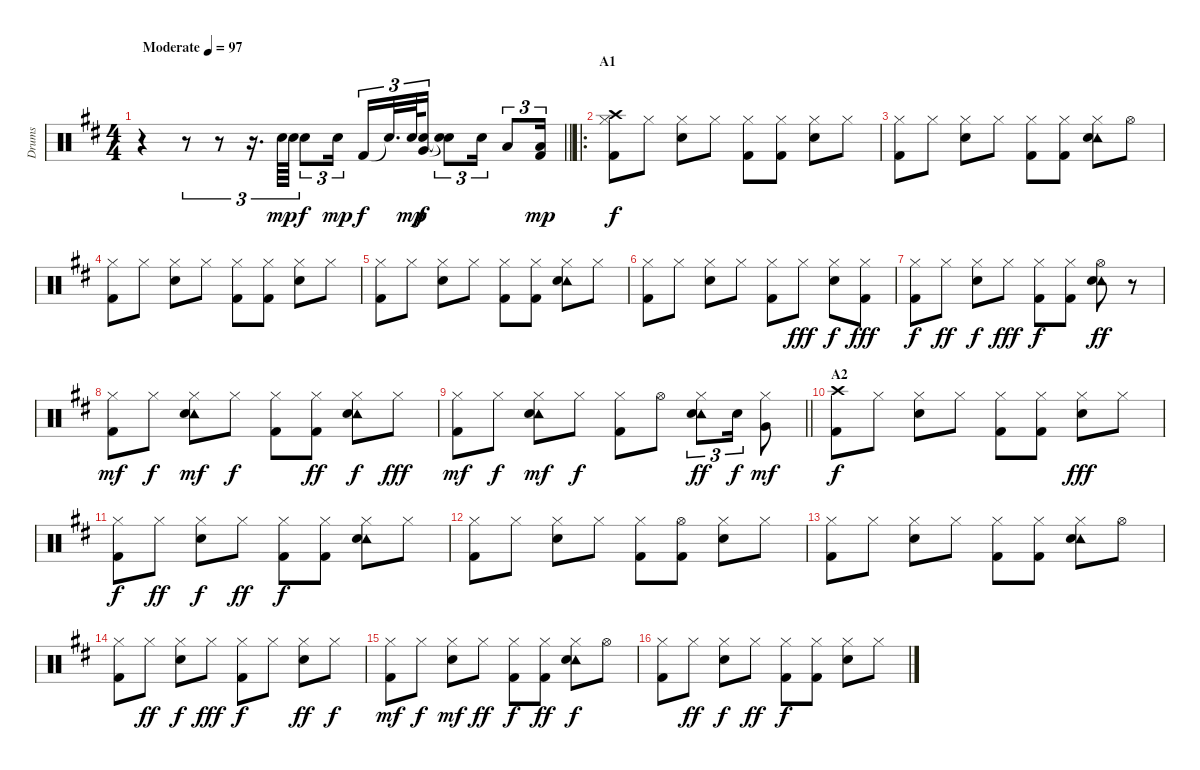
\track ("Drums" "Drums") {instrument percussion}
\staff {score}
\articulation defaults
\ts (4 4)
\tempo (97 "Moderate")
\clef neutral
\barLineRight lightlight
\ks d
r.4{dy mp} r.8{tu (3 2)} r.8{tu (3 2)} r.16{d tu (3 2)} "Electric Snare (hit)".64{tu (3 2)} "Electric Snare (hit)".64{tu (3 2)} "Electric Snare (hit)".8{tu (3 2) dy f} "Electric Snare (hit)".16{tu (3 2) dy mp} "Kick (hit) 2".16{tu (3 2) dy f} "Snare (hit)"{t}.32{d tu (3 2)} "Electric Snare (hit)".64{tu (3 2) dy mp} ("Electric Snare (hit)" "Very Low Tom (hit)").16{tu (3 2) dy f} ("Snare (hit)"{t} "Snare (hit)"{t}).8{tu (3 2)} "Electric Snare (hit)".16{tu (3 2)} "Low Tom (hit)".8{tu (3 2)} ("Low Tom (hit)" "Kick (hit) 2").16{tu (3 2) dy mp} |
\ro
\section ("" "A1")
("Hi-Hat (closed)" "Crash high (hit)" "Kick (hit) 2").8{dy f} "Hi-Hat (closed)".8 ("Hi-Hat (closed)" "Electric Snare (hit)").8 "Hi-Hat (closed)".8 ("Hi-Hat (closed)" "Kick (hit) 2").8 ("Hi-Hat (closed)" "Kick (hit) 2").8 ("Hi-Hat (closed)" "Electric Snare (hit)").8 "Hi-Hat (closed)".8 |
("Hi-Hat (closed)" "Kick (hit) 2").8 "Hi-Hat (closed)".8 ("Hi-Hat (closed)" "Electric Snare (hit)").8 "Hi-Hat (closed)".8 ("Hi-Hat (closed)" "Kick (hit) 2").8 ("Hi-Hat (closed)" "Kick (hit) 2").8 ("Hi-Hat (closed)" "Tambourine (hit)" "Electric Snare (hit)").8 "Hi-Hat (open)".8 |
("Hi-Hat (closed)" "Kick (hit) 2").8 "Hi-Hat (closed)".8 ("Hi-Hat (closed)" "Electric Snare (hit)").8 "Hi-Hat (closed)".8 ("Hi-Hat (closed)" "Kick (hit) 2").8 ("Hi-Hat (closed)" "Kick (hit) 2").8 ("Hi-Hat (closed)" "Electric Snare (hit)").8 "Hi-Hat (closed)".8 |
("Hi-Hat (closed)" "Kick (hit) 2").8 "Hi-Hat (closed)".8 ("Hi-Hat (closed)" "Electric Snare (hit)").8 "Hi-Hat (closed)".8 ("Hi-Hat (closed)" "Kick (hit) 2").8 ("Hi-Hat (closed)" "Kick (hit) 2").8 ("Hi-Hat (closed)" "Tambourine (hit)" "Electric Snare (hit)").8 "Hi-Hat (closed)".8 |
("Hi-Hat (closed)" "Kick (hit) 2").8 "Hi-Hat (closed)".8 ("Hi-Hat (closed)" "Electric Snare (hit)").8 "Hi-Hat (closed)".8 ("Hi-Hat (closed)" "Kick (hit) 2").8 "Hi-Hat (closed)".8{dy fff} ("Hi-Hat (closed)" "Electric Snare (hit)").8{dy f} ("Hi-Hat (closed)" "Kick (hit) 2").8{dy fff} |
("Hi-Hat (closed)" "Kick (hit) 2").8{dy f} "Hi-Hat (closed)".8{dy ff} ("Hi-Hat (closed)" "Electric Snare (hit)").8{dy f} "Hi-Hat (closed)".8{dy fff} ("Hi-Hat (closed)" "Kick (hit) 2").8{dy f} ("Hi-Hat (closed)" "Kick (hit) 2").8 ("Hi-Hat (open)" "Tambourine (hit)" "Electric Snare (hit)").8{dy ff} r.8 |
("Hi-Hat (closed)" "Kick (hit) 2").8{dy mf} "Hi-Hat (closed)".8{dy f} ("Hi-Hat (closed)" "Tambourine (hit)" "Electric Snare (hit)").8{dy mf} "Hi-Hat (closed)".8{dy f} ("Hi-Hat (closed)" "Kick (hit) 2").8 ("Hi-Hat (closed)" "Kick (hit) 2").8{dy ff} ("Hi-Hat (closed)" "Tambourine (hit)" "Electric Snare (hit)").8{dy f} "Hi-Hat (closed)".8{dy fff} |
\barLineRight lightlight
("Hi-Hat (closed)" "Kick (hit) 2").8{dy mf} "Hi-Hat (closed)".8{dy f} ("Hi-Hat (closed)" "Tambourine (hit)" "Electric Snare (hit)").8{dy mf} "Hi-Hat (closed)".8{dy f} ("Hi-Hat (closed)" "Kick (hit) 2").8 "Hi-Hat (open)".8 ("Hi-Hat (closed)" "Tambourine (hit)" "Electric Snare (hit)").8{tu (3 2) dy ff} "Electric Snare (hit)".16{tu (3 2) dy f} ("Hi-Hat (closed)" "Very Low Tom (hit)").8{dy mf} |
\section ("" "A2")
("Crash high (hit)" "Kick (hit) 2").8{dy f} "Hi-Hat (closed)".8 ("Hi-Hat (closed)" "Electric Snare (hit)").8 "Hi-Hat (closed)".8 ("Hi-Hat (closed)" "Kick (hit) 2").8 ("Hi-Hat (closed)" "Kick (hit) 2").8 ("Hi-Hat (closed)" "Electric Snare (hit)").8{dy fff} "Hi-Hat (closed)".8 |
("Hi-Hat (closed)" "Kick (hit) 2").8{dy f} "Hi-Hat (closed)".8{dy ff} ("Hi-Hat (closed)" "Electric Snare (hit)").8{dy f} "Hi-Hat (closed)".8{dy ff} ("Hi-Hat (closed)" "Kick (hit) 2").8{dy f} ("Hi-Hat (closed)" "Kick (hit) 2").8 ("Hi-Hat (closed)" "Tambourine (hit)" "Electric Snare (hit)").8 "Hi-Hat (closed)".8 |
("Hi-Hat (closed)" "Kick (hit) 2").8 "Hi-Hat (closed)".8 ("Hi-Hat (closed)" "Electric Snare (hit)").8 "Hi-Hat (closed)".8 ("Hi-Hat (closed)" "Kick (hit) 2").8 ("Hi-Hat (open)" "Kick (hit) 2").8 ("Hi-Hat (closed)" "Electric Snare (hit)").8 "Hi-Hat (closed)".8 |
("Hi-Hat (closed)" "Kick (hit) 2").8 "Hi-Hat (closed)".8 ("Hi-Hat (closed)" "Electric Snare (hit)").8 "Hi-Hat (closed)".8 ("Hi-Hat (closed)" "Kick (hit) 2").8 ("Hi-Hat (closed)" "Kick (hit) 2").8 ("Hi-Hat (closed)" "Tambourine (hit)" "Electric Snare (hit)").8 "Hi-Hat (open)".8 |
("Hi-Hat (closed)" "Kick (hit) 2").8 "Hi-Hat (closed)".8{dy ff} ("Hi-Hat (closed)" "Electric Snare (hit)").8{dy f} "Hi-Hat (closed)".8{dy fff} ("Hi-Hat (closed)" "Kick (hit) 2").8{dy f} "Hi-Hat (closed)".8 ("Hi-Hat (closed)" "Electric Snare (hit)").8{dy ff} "Hi-Hat (closed)".8{dy f} |
("Hi-Hat (closed)" "Kick (hit) 2").8{dy mf} "Hi-Hat (closed)".8{dy f} ("Hi-Hat (closed)" "Electric Snare (hit)").8{dy mf} "Hi-Hat (closed)".8{dy ff} ("Hi-Hat (closed)" "Kick (hit) 2").8{dy f} ("Hi-Hat (closed)" "Kick (hit) 2").8{dy ff} ("Hi-Hat (closed)" "Tambourine (hit)" "Electric Snare (hit)").8{dy f} "Hi-Hat (open)".8 |
("Hi-Hat (closed)" "Kick (hit) 2").8 "Hi-Hat (closed)".8{dy ff} ("Hi-Hat (closed)" "Electric Snare (hit)").8{dy f} "Hi-Hat (closed)".8{dy ff} ("Hi-Hat (closed)" "Kick (hit) 2").8{dy f} ("Hi-Hat (closed)" "Kick (hit) 2").8 ("Hi-Hat (closed)" "Electric Snare (hit)").8 "Hi-Hat (closed)".8
